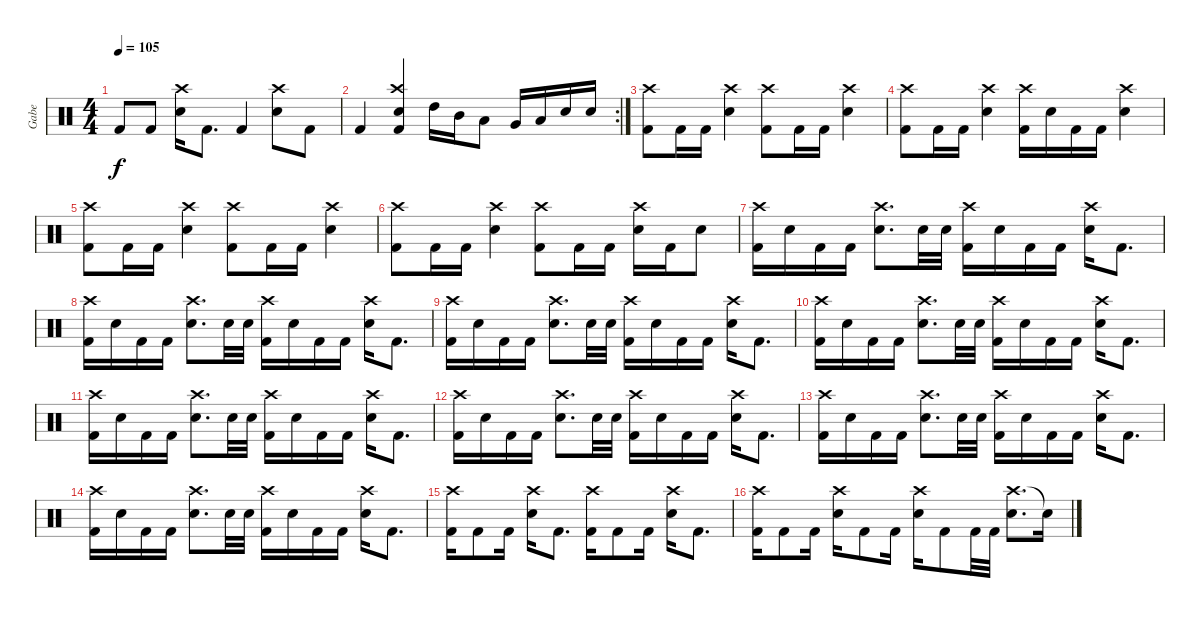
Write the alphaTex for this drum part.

\track ("Gabe" "Gabe") {instrument percussion}
\staff {score}
\articulation defaults
\ts (4 4)
\tempo 105
\clef neutral
\ks c "Kick (hit) 2".8{dy f} "Kick (hit) 2".8
("Crash high (hit)" "Electric Snare (hit)").16 "Kick (hit) 2".8{d} "Kick (hit) 2".4 ("Crash high (hit)" "Electric Snare (hit)").8 "Kick (hit) 2".8 |
\rc 2 "Kick (hit) 2".4
("Crash high (hit)" "Electric Snare (hit)" "Kick (hit) 2").4 "High Tom (hit)".16 "Mid Tom (hit)".16 "Low Tom (hit)".8 "Very Low Tom (hit)".16 "Low Floor Tom (hit)".16 "Electric Snare (hit)".16 "Electric Snare (hit)".16 |
("Crash high (hit)" "Kick (hit) 2").8 "Kick (hit) 2".16 "Kick (hit) 2".16 ("Crash high (hit)" "Electric Snare (hit)").4 ("Crash high (hit)" "Kick (hit) 2").8 "Kick (hit) 2".16 "Kick (hit) 2".16 ("Crash high (hit)" "Electric Snare (hit)").4 |
("Crash high (hit)" "Kick (hit) 2").8 "Kick (hit) 2".16 "Kick (hit) 2".16 ("Crash high (hit)" "Electric Snare (hit)").4 ("Crash high (hit)" "Kick (hit) 2").16 "Electric Snare (hit)".16 "Kick (hit) 2".16 "Kick (hit) 2".16 ("Crash high (hit)" "Electric Snare (hit)").4 |
("Crash high (hit)" "Kick (hit) 2").8 "Kick (hit) 2".16 "Kick (hit) 2".16 ("Crash high (hit)" "Electric Snare (hit)").4 ("Crash high (hit)" "Kick (hit) 2").8 "Kick (hit) 2".16 "Kick (hit) 2".16 ("Crash high (hit)" "Electric Snare (hit)").4 |
("Crash high (hit)" "Kick (hit) 2").8 "Kick (hit) 2".16 "Kick (hit) 2".16 ("Crash high (hit)" "Electric Snare (hit)").4 ("Crash high (hit)" "Kick (hit) 2").8 "Kick (hit) 2".16 "Kick (hit) 2".16 ("Crash high (hit)" "Electric Snare (hit)").16 "Kick (hit) 2".16 "Electric Snare (hit)".8 |
("Crash high (hit)" "Kick (hit) 2").16 "Electric Snare (hit)".16 "Kick (hit) 2".16 "Kick (hit) 2".16 ("Crash high (hit)" "Electric Snare (hit)").8{d} "Electric Snare (hit)".32 "Electric Snare (hit)".32 ("Crash high (hit)" "Kick (hit) 2").16 "Electric Snare (hit)".16 "Kick (hit) 2".16 "Kick (hit) 2".16 ("Crash high (hit)" "Electric Snare (hit)").16 "Kick (hit) 2".8{d} |
("Crash high (hit)" "Kick (hit) 2").16 "Electric Snare (hit)".16 "Kick (hit) 2".16 "Kick (hit) 2".16 ("Crash high (hit)" "Electric Snare (hit)").8{d} "Electric Snare (hit)".32 "Electric Snare (hit)".32 ("Crash high (hit)" "Kick (hit) 2").16 "Electric Snare (hit)".16 "Kick (hit) 2".16 "Kick (hit) 2".16 ("Crash high (hit)" "Electric Snare (hit)").16 "Kick (hit) 2".8{d} |
("Crash high (hit)" "Kick (hit) 2").16 "Electric Snare (hit)".16 "Kick (hit) 2".16 "Kick (hit) 2".16 ("Crash high (hit)" "Electric Snare (hit)").8{d} "Electric Snare (hit)".32 "Electric Snare (hit)".32 ("Crash high (hit)" "Kick (hit) 2").16 "Electric Snare (hit)".16 "Kick (hit) 2".16 "Kick (hit) 2".16 ("Crash high (hit)" "Electric Snare (hit)").16 "Kick (hit) 2".8{d} |
("Crash high (hit)" "Kick (hit) 2").16 "Electric Snare (hit)".16 "Kick (hit) 2".16 "Kick (hit) 2".16 ("Crash high (hit)" "Electric Snare (hit)").8{d} "Electric Snare (hit)".32 "Electric Snare (hit)".32 ("Crash high (hit)" "Kick (hit) 2").16 "Electric Snare (hit)".16 "Kick (hit) 2".16 "Kick (hit) 2".16 ("Crash high (hit)" "Electric Snare (hit)").16 "Kick (hit) 2".8{d} |
("Crash high (hit)" "Kick (hit) 2").16 "Electric Snare (hit)".16 "Kick (hit) 2".16 "Kick (hit) 2".16 ("Crash high (hit)" "Electric Snare (hit)").8{d} "Electric Snare (hit)".32 "Electric Snare (hit)".32 ("Crash high (hit)" "Kick (hit) 2").16 "Electric Snare (hit)".16 "Kick (hit) 2".16 "Kick (hit) 2".16 ("Crash high (hit)" "Electric Snare (hit)").16 "Kick (hit) 2".8{d} |
("Crash high (hit)" "Kick (hit) 2").16 "Electric Snare (hit)".16 "Kick (hit) 2".16 "Kick (hit) 2".16 ("Crash high (hit)" "Electric Snare (hit)").8{d} "Electric Snare (hit)".32 "Electric Snare (hit)".32 ("Crash high (hit)" "Kick (hit) 2").16 "Electric Snare (hit)".16 "Kick (hit) 2".16 "Kick (hit) 2".16 ("Crash high (hit)" "Electric Snare (hit)").16 "Kick (hit) 2".8{d} |
("Crash high (hit)" "Kick (hit) 2").16 "Electric Snare (hit)".16 "Kick (hit) 2".16 "Kick (hit) 2".16 ("Crash high (hit)" "Electric Snare (hit)").8{d} "Electric Snare (hit)".32 "Electric Snare (hit)".32 ("Crash high (hit)" "Kick (hit) 2").16 "Electric Snare (hit)".16 "Kick (hit) 2".16 "Kick (hit) 2".16 ("Crash high (hit)" "Electric Snare (hit)").16 "Kick (hit) 2".8{d} |
("Crash high (hit)" "Kick (hit) 2").16 "Electric Snare (hit)".16 "Kick (hit) 2".16 "Kick (hit) 2".16 ("Crash high (hit)" "Electric Snare (hit)").8{d} "Electric Snare (hit)".32 "Electric Snare (hit)".32 ("Crash high (hit)" "Kick (hit) 2").16 "Electric Snare (hit)".16 "Kick (hit) 2".16 "Kick (hit) 2".16 ("Crash high (hit)" "Electric Snare (hit)").16 "Kick (hit) 2".8{d} |
("Crash high (hit)" "Kick (hit) 2").16 "Kick (hit) 2".8 "Kick (hit) 2".16 ("Crash high (hit)" "Electric Snare (hit)").16 "Kick (hit) 2".8{d} ("Crash high (hit)" "Kick (hit) 2").16 "Kick (hit) 2".8 "Kick (hit) 2".16 ("Crash high (hit)" "Electric Snare (hit)").16 "Kick (hit) 2".8{d} |
("Crash high (hit)" "Kick (hit) 2").16 "Kick (hit) 2".8 "Kick (hit) 2".16 ("Crash high (hit)" "Electric Snare (hit)").16 "Kick (hit) 2".8 "Kick (hit) 2".16 ("Crash high (hit)" "Electric Snare (hit)").16 "Kick (hit) 2".8 "Kick (hit) 2".32 "Kick (hit) 2".32 ("Crash high (hit)" "Electric Snare (hit)").8{d} "Snare (hit)"{t}.16
